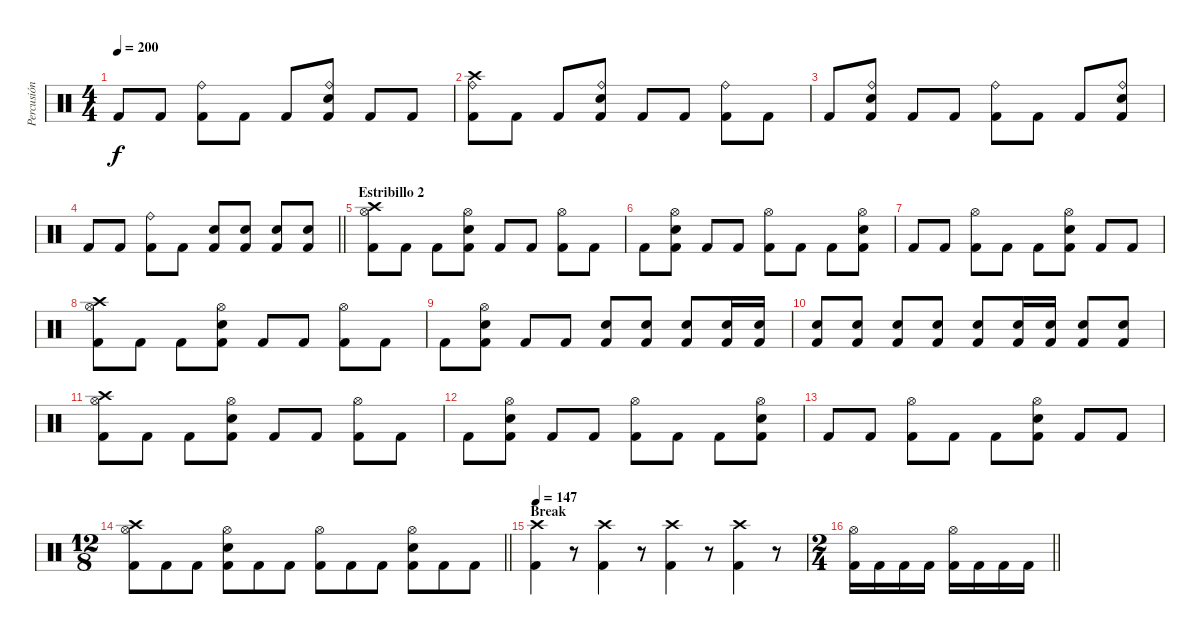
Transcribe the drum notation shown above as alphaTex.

\track ("Percusión" "Percusión") {instrument percussion}
\staff {score}
\articulation defaults
\ts (4 4)
\tempo 200
\clef neutral
\ks c "Kick (hit) 2".8{dy f} "Kick (hit) 2".8
("Ride (bell)" "Kick (hit) 2").8 "Kick (hit) 2".8 "Kick (hit) 2".8 ("Ride (bell)" "Snare (hit) 2" "Kick (hit) 2").8 "Kick (hit) 2".8 "Kick (hit) 2".8 |
("Ride (bell)" "Crash high (hit)" "Kick (hit) 2").8 "Kick (hit) 2".8 "Kick (hit) 2".8 ("Ride (bell)" "Snare (hit) 2" "Kick (hit) 2").8 "Kick (hit) 2".8 "Kick (hit) 2".8 ("Ride (bell)" "Kick (hit) 2").8 "Kick (hit) 2".8 |
"Kick (hit) 2".8 ("Ride (bell)" "Snare (hit) 2" "Kick (hit) 2").8 "Kick (hit) 2".8 "Kick (hit) 2".8 ("Ride (bell)" "Kick (hit) 2").8 "Kick (hit) 2".8 "Kick (hit) 2".8 ("Ride (bell)" "Snare (hit) 2" "Kick (hit) 2").8 |
\barLineRight lightlight "Kick (hit) 2".8 "Kick (hit) 2".8
("Ride (bell)" "Kick (hit) 2").8 "Kick (hit) 2".8 ("Snare (hit) 2" "Kick (hit) 2").8 ("Snare (hit) 2" "Kick (hit) 2").8 ("Snare (hit) 2" "Kick (hit) 2").8 ("Snare (hit) 2" "Kick (hit) 2").8 |
\section ("" "Estribillo 2")
("Hi-Hat (open)" "Crash high (hit)" "Kick (hit) 2").8 "Kick (hit) 2".8 "Kick (hit) 2".8 ("Hi-Hat (open)" "Snare (hit) 2" "Kick (hit) 2").8 "Kick (hit) 2".8 "Kick (hit) 2".8 ("Hi-Hat (open)" "Kick (hit) 2").8 "Kick (hit) 2".8 |
"Kick (hit) 2".8 ("Hi-Hat (open)" "Snare (hit) 2" "Kick (hit) 2").8 "Kick (hit) 2".8 "Kick (hit) 2".8 ("Hi-Hat (open)" "Kick (hit) 2").8 "Kick (hit) 2".8 "Kick (hit) 2".8 ("Hi-Hat (open)" "Snare (hit) 2" "Kick (hit) 2").8 |
"Kick (hit) 2".8 "Kick (hit) 2".8 ("Hi-Hat (open)" "Kick (hit) 2").8 "Kick (hit) 2".8 "Kick (hit) 2".8 ("Hi-Hat (open)" "Snare (hit) 2" "Kick (hit) 2").8 "Kick (hit) 2".8 "Kick (hit) 2".8 |
("Hi-Hat (open)" "Crash high (hit)" "Kick (hit) 2").8 "Kick (hit) 2".8 "Kick (hit) 2".8 ("Hi-Hat (open)" "Snare (hit) 2" "Kick (hit) 2").8 "Kick (hit) 2".8 "Kick (hit) 2".8 ("Hi-Hat (open)" "Kick (hit) 2").8 "Kick (hit) 2".8 |
"Kick (hit) 2".8 ("Hi-Hat (open)" "Snare (hit) 2" "Kick (hit) 2").8 "Kick (hit) 2".8 "Kick (hit) 2".8 ("Snare (hit) 2" "Kick (hit) 2").8 ("Snare (hit) 2" "Kick (hit) 2").8 ("Snare (hit) 2" "Kick (hit) 2").8 ("Snare (hit) 2" "Kick (hit) 2").16 ("Snare (hit) 2" "Kick (hit) 2").16 |
("Snare (hit) 2" "Kick (hit) 2").8 ("Snare (hit) 2" "Kick (hit) 2").8 ("Snare (hit) 2" "Kick (hit) 2").8 ("Snare (hit) 2" "Kick (hit) 2").8 ("Snare (hit) 2" "Kick (hit) 2").8 ("Snare (hit) 2" "Kick (hit) 2").16 ("Snare (hit) 2" "Kick (hit) 2").16 ("Snare (hit) 2" "Kick (hit) 2").8 ("Snare (hit) 2" "Kick (hit) 2").8 |
("Hi-Hat (open)" "Crash high (hit)" "Kick (hit) 2").8 "Kick (hit) 2".8 "Kick (hit) 2".8 ("Hi-Hat (open)" "Snare (hit) 2" "Kick (hit) 2").8 "Kick (hit) 2".8 "Kick (hit) 2".8 ("Hi-Hat (open)" "Kick (hit) 2").8 "Kick (hit) 2".8 |
"Kick (hit) 2".8 ("Hi-Hat (open)" "Snare (hit) 2" "Kick (hit) 2").8 "Kick (hit) 2".8 "Kick (hit) 2".8 ("Hi-Hat (open)" "Kick (hit) 2").8 "Kick (hit) 2".8 "Kick (hit) 2".8 ("Hi-Hat (open)" "Snare (hit) 2" "Kick (hit) 2").8 |
"Kick (hit) 2".8 "Kick (hit) 2".8 ("Hi-Hat (open)" "Kick (hit) 2").8 "Kick (hit) 2".8 "Kick (hit) 2".8 ("Hi-Hat (open)" "Snare (hit) 2" "Kick (hit) 2").8 "Kick (hit) 2".8 "Kick (hit) 2".8 |
\ts (12 8)
\barLineRight lightlight
("Hi-Hat (open)" "Crash high (hit)" "Kick (hit) 2").8 "Kick (hit) 2".8 "Kick (hit) 2".8 ("Hi-Hat (open)" "Snare (hit) 2" "Kick (hit) 2").8 "Kick (hit) 2".8 "Kick (hit) 2".8 ("Hi-Hat (open)" "Kick (hit) 2").8 "Kick (hit) 2".8 "Kick (hit) 2".8 ("Hi-Hat (open)" "Snare (hit) 2" "Kick (hit) 2").8 "Kick (hit) 2".8 "Kick (hit) 2".8 |
\section ("" "Break")
\tempo 147
("Crash high (hit)" "Kick (hit) 2").4 r.8 ("Crash high (hit)" "Kick (hit) 2").4 r.8 ("Crash high (hit)" "Kick (hit) 2").4 r.8 ("Crash high (hit)" "Kick (hit) 2").4 r.8 |
\ts (2 4)
\barLineRight lightlight
("Hi-Hat (open)" "Kick (hit) 2").16 "Kick (hit) 2".16 "Kick (hit) 2".16 "Kick (hit) 2".16 ("Hi-Hat (open)" "Kick (hit) 2").16 "Kick (hit) 2".16 "Kick (hit) 2".16 "Kick (hit) 2".16
